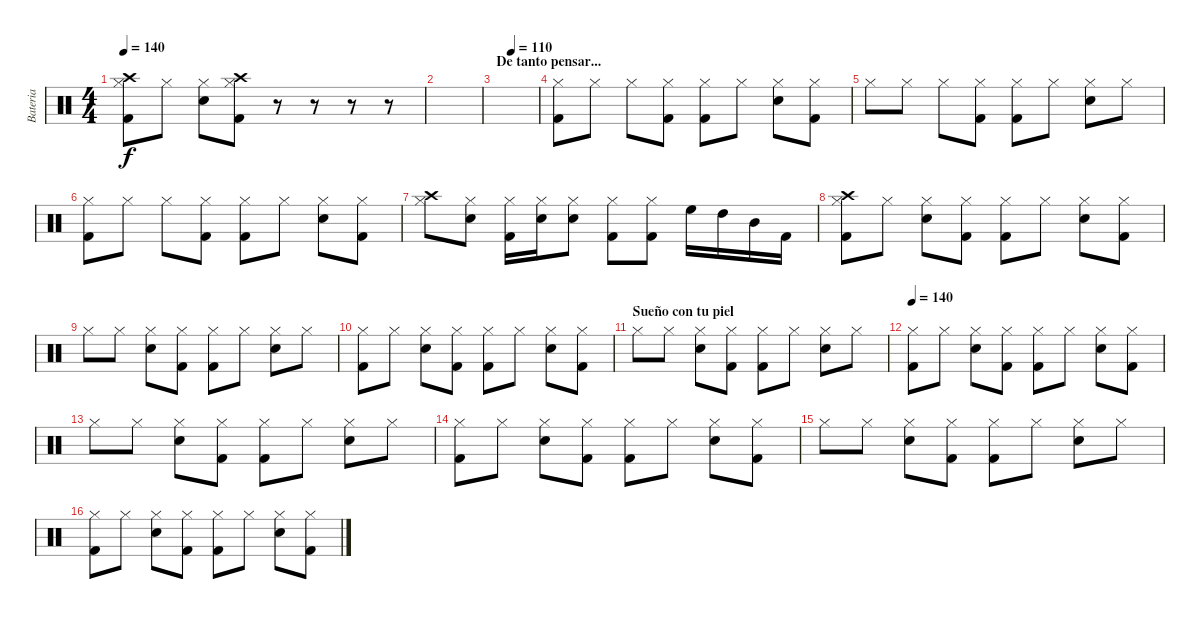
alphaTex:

\track ("Bateria" "Bateria") {instrument percussion}
\staff {score}
\articulation defaults
\ts (4 4)
\tempo 140
\clef neutral
\ks c
("Hi-Hat (closed)" "Crash high (hit)" "Kick (hit) 2").8{dy f} "Hi-Hat (closed)".8 ("Hi-Hat (closed)" "Snare (hit) 2").8 ("Hi-Hat (closed)" "Crash high (hit)" "Kick (hit) 2").8 r.8 r.8 r.8 r.8 |
|
\section ("" "De tanto pensar...")
\tempo (110 0.375)
|
("Hi-Hat (closed)" "Kick (hit) 2").8 "Hi-Hat (closed)".8 "Hi-Hat (closed)".8 ("Hi-Hat (closed)" "Kick (hit) 2").8 ("Hi-Hat (closed)" "Kick (hit) 2").8 "Hi-Hat (closed)".8 ("Hi-Hat (closed)" "Snare (hit) 2").8 ("Hi-Hat (closed)" "Kick (hit) 2").8 |
"Hi-Hat (closed)".8 "Hi-Hat (closed)".8 "Hi-Hat (closed)".8 ("Hi-Hat (closed)" "Kick (hit) 2").8 ("Hi-Hat (closed)" "Kick (hit) 2").8 "Hi-Hat (closed)".8 ("Hi-Hat (closed)" "Snare (hit) 2").8 "Hi-Hat (closed)".8 |
("Hi-Hat (closed)" "Kick (hit) 2").8 "Hi-Hat (closed)".8 "Hi-Hat (closed)".8 ("Hi-Hat (closed)" "Kick (hit) 2").8 ("Hi-Hat (closed)" "Kick (hit) 2").8 "Hi-Hat (closed)".8 ("Hi-Hat (closed)" "Snare (hit) 2").8 ("Hi-Hat (closed)" "Kick (hit) 2").8 |
("Hi-Hat (closed)" "Crash high (hit)").8 ("Hi-Hat (closed)" "Snare (hit) 2").8 ("Hi-Hat (closed)" "Kick (hit) 2").16 ("Hi-Hat (closed)" "Snare (hit) 2").16 ("Hi-Hat (closed)" "Snare (hit) 2").8 ("Hi-Hat (closed)" "Kick (hit) 2").8 ("Hi-Hat (closed)" "Kick (hit) 2").8 "High Floor Tom (hit)".16 "High Tom (hit)".16 "Mid Tom (hit)".16 "Kick (hit) 2".16 |
("Hi-Hat (closed)" "Crash high (hit)" "Kick (hit) 2").8 "Hi-Hat (closed)".8 ("Hi-Hat (closed)" "Snare (hit) 2").8 ("Hi-Hat (closed)" "Kick (hit) 2").8 ("Hi-Hat (closed)" "Kick (hit) 2").8 "Hi-Hat (closed)".8 ("Hi-Hat (closed)" "Snare (hit) 2").8 ("Hi-Hat (closed)" "Kick (hit) 2").8 |
"Hi-Hat (closed)".8 "Hi-Hat (closed)".8 ("Hi-Hat (closed)" "Snare (hit) 2").8 ("Hi-Hat (closed)" "Kick (hit) 2").8 ("Hi-Hat (closed)" "Kick (hit) 2").8 "Hi-Hat (closed)".8 ("Hi-Hat (closed)" "Snare (hit) 2").8 "Hi-Hat (closed)".8 |
("Hi-Hat (closed)" "Kick (hit) 2").8 "Hi-Hat (closed)".8 ("Hi-Hat (closed)" "Snare (hit) 2").8 ("Hi-Hat (closed)" "Kick (hit) 2").8 ("Hi-Hat (closed)" "Kick (hit) 2").8 "Hi-Hat (closed)".8 ("Hi-Hat (closed)" "Snare (hit) 2").8 ("Hi-Hat (closed)" "Kick (hit) 2").8 |
\section ("" "Sueño con tu piel")
"Hi-Hat (closed)".8 "Hi-Hat (closed)".8 ("Hi-Hat (closed)" "Snare (hit) 2").8 ("Hi-Hat (closed)" "Kick (hit) 2").8 ("Hi-Hat (closed)" "Kick (hit) 2").8 "Hi-Hat (closed)".8 ("Hi-Hat (closed)" "Snare (hit) 2").8 "Hi-Hat (closed)".8 |
\tempo 140
("Hi-Hat (closed)" "Kick (hit) 2").8 "Hi-Hat (closed)".8 ("Hi-Hat (closed)" "Snare (hit) 2").8 ("Hi-Hat (closed)" "Kick (hit) 2").8 ("Hi-Hat (closed)" "Kick (hit) 2").8 "Hi-Hat (closed)".8 ("Hi-Hat (closed)" "Snare (hit) 2").8 ("Hi-Hat (closed)" "Kick (hit) 2").8 |
"Hi-Hat (closed)".8 "Hi-Hat (closed)".8 ("Hi-Hat (closed)" "Snare (hit) 2").8 ("Hi-Hat (closed)" "Kick (hit) 2").8 ("Hi-Hat (closed)" "Kick (hit) 2").8 "Hi-Hat (closed)".8 ("Hi-Hat (closed)" "Snare (hit) 2").8 "Hi-Hat (closed)".8 |
("Hi-Hat (closed)" "Kick (hit) 2").8 "Hi-Hat (closed)".8 ("Hi-Hat (closed)" "Snare (hit) 2").8 ("Hi-Hat (closed)" "Kick (hit) 2").8 ("Hi-Hat (closed)" "Kick (hit) 2").8 "Hi-Hat (closed)".8 ("Hi-Hat (closed)" "Snare (hit) 2").8 ("Hi-Hat (closed)" "Kick (hit) 2").8 |
"Hi-Hat (closed)".8 "Hi-Hat (closed)".8 ("Hi-Hat (closed)" "Snare (hit) 2").8 ("Hi-Hat (closed)" "Kick (hit) 2").8 ("Hi-Hat (closed)" "Kick (hit) 2").8 "Hi-Hat (closed)".8 ("Hi-Hat (closed)" "Snare (hit) 2").8 "Hi-Hat (closed)".8 |
("Hi-Hat (closed)" "Kick (hit) 2").8 "Hi-Hat (closed)".8 ("Hi-Hat (closed)" "Snare (hit) 2").8 ("Hi-Hat (closed)" "Kick (hit) 2").8 ("Hi-Hat (closed)" "Kick (hit) 2").8 "Hi-Hat (closed)".8 ("Hi-Hat (closed)" "Snare (hit) 2").8 ("Hi-Hat (closed)" "Kick (hit) 2").8
